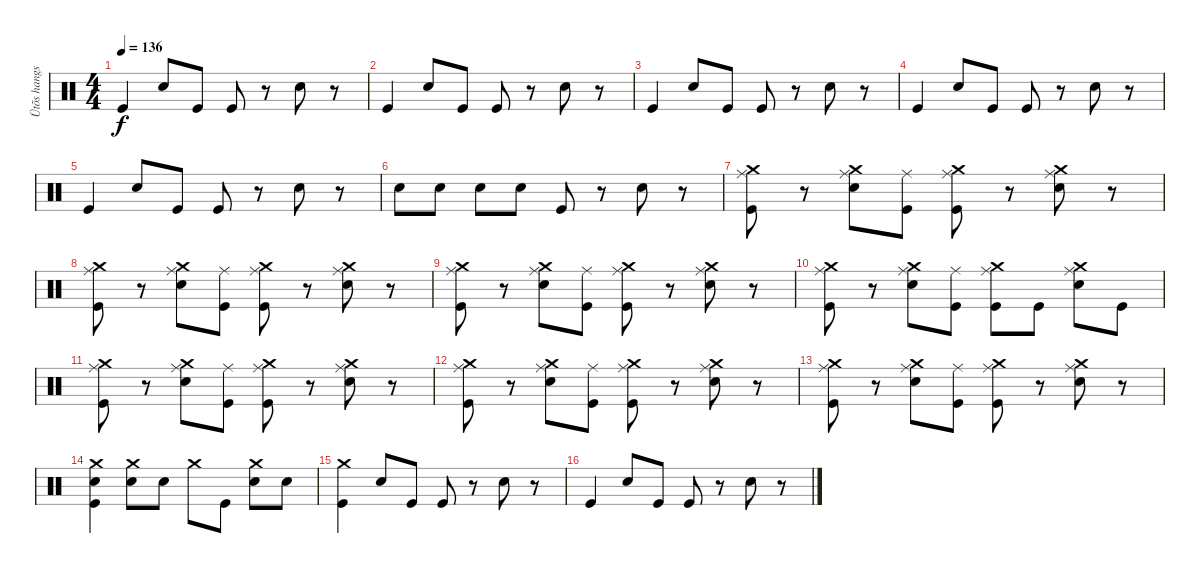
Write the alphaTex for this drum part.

\track ("Ütõs hangszer" "Ütõs hangs") {instrument percussion}
\staff {score}
\articulation defaults
\ts (4 4)
\tempo 136
\clef neutral
\ks c "Kick (hit)".4{dy f} "Electric Snare (hit)".8 "Kick (hit)".8 "Kick (hit)".8
r.8 "Electric Snare (hit)".8 r.8 |
"Kick (hit)".4 "Electric Snare (hit)".8 "Kick (hit)".8 "Kick (hit)".8 r.8 "Electric Snare (hit)".8 r.8 |
"Kick (hit)".4 "Electric Snare (hit)".8 "Kick (hit)".8 "Kick (hit)".8 r.8 "Electric Snare (hit)".8 r.8 |
"Kick (hit)".4 "Electric Snare (hit)".8 "Kick (hit)".8 "Kick (hit)".8 r.8 "Electric Snare (hit)".8 r.8 |
"Kick (hit)".4 "Electric Snare (hit)".8 "Kick (hit)".8 "Kick (hit)".8 r.8 "Electric Snare (hit)".8 r.8 |
"Electric Snare (hit)".8 "Electric Snare (hit)".8 "Electric Snare (hit)".8 "Electric Snare (hit)".8 "Kick (hit)".8 r.8 "Hand Clap (hit)".8 r.8 |
("Crash medium (hit)" "Ride (middle)" "Kick (hit)").8 r.8 ("Crash medium (hit)" "Ride (middle)" "Electric Snare (hit)").8 ("Ride (middle)" "Kick (hit)").8 ("Crash medium (hit)" "Ride (middle)" "Kick (hit)").8 r.8 ("Crash medium (hit)" "Ride (middle)" "Electric Snare (hit)").8 r.8 |
("Crash medium (hit)" "Ride (middle)" "Kick (hit)").8 r.8 ("Crash medium (hit)" "Ride (middle)" "Electric Snare (hit)").8 ("Ride (middle)" "Kick (hit)").8 ("Crash medium (hit)" "Ride (middle)" "Kick (hit)").8 r.8 ("Crash medium (hit)" "Ride (middle)" "Electric Snare (hit)").8 r.8 |
("Crash medium (hit)" "Ride (middle)" "Kick (hit)").8 r.8 ("Crash medium (hit)" "Ride (middle)" "Electric Snare (hit)").8 ("Ride (middle)" "Kick (hit)").8 ("Crash medium (hit)" "Ride (middle)" "Kick (hit)").8 r.8 ("Crash medium (hit)" "Ride (middle)" "Electric Snare (hit)").8 r.8 |
("Crash medium (hit)" "Ride (middle)" "Kick (hit)").8 r.8 ("Crash medium (hit)" "Ride (middle)" "Electric Snare (hit)").8 ("Ride (middle)" "Kick (hit)").8 ("Crash medium (hit)" "Ride (middle)" "Kick (hit)").8 "Kick (hit)".8 ("Crash medium (hit)" "Ride (middle)" "Electric Snare (hit)").8 "Kick (hit)".8 |
("Crash medium (hit)" "Ride (middle)" "Kick (hit)").8 r.8 ("Crash medium (hit)" "Ride (middle)" "Electric Snare (hit)").8 ("Ride (middle)" "Kick (hit)").8 ("Crash medium (hit)" "Ride (middle)" "Kick (hit)").8 r.8 ("Crash medium (hit)" "Ride (middle)" "Electric Snare (hit)").8 r.8 |
("Crash medium (hit)" "Ride (middle)" "Kick (hit)").8 r.8 ("Crash medium (hit)" "Ride (middle)" "Electric Snare (hit)").8 ("Ride (middle)" "Kick (hit)").8 ("Crash medium (hit)" "Ride (middle)" "Kick (hit)").8 r.8 ("Crash medium (hit)" "Ride (middle)" "Electric Snare (hit)").8 r.8 |
("Crash medium (hit)" "Ride (middle)" "Kick (hit)").8 r.8 ("Crash medium (hit)" "Ride (middle)" "Electric Snare (hit)").8 ("Ride (middle)" "Kick (hit)").8 ("Crash medium (hit)" "Ride (middle)" "Kick (hit)").8 r.8 ("Crash medium (hit)" "Ride (middle)" "Electric Snare (hit)").8 r.8 |
("Crash medium (hit)" "Electric Snare (hit)" "Kick (hit)").4 ("Crash medium (hit)" "Electric Snare (hit)").8 "Electric Snare (hit)".8 "Crash medium (hit)".8 "Kick (hit)".8 ("Crash medium (hit)" "Electric Snare (hit)").8 "Electric Snare (hit)".8 |
("Crash medium (hit)" "Kick (hit)").4 "Electric Snare (hit)".8 "Kick (hit)".8 "Kick (hit)".8 r.8 "Electric Snare (hit)".8 r.8 |
"Kick (hit)".4 "Electric Snare (hit)".8 "Kick (hit)".8 "Kick (hit)".8 r.8 "Electric Snare (hit)".8 r.8
